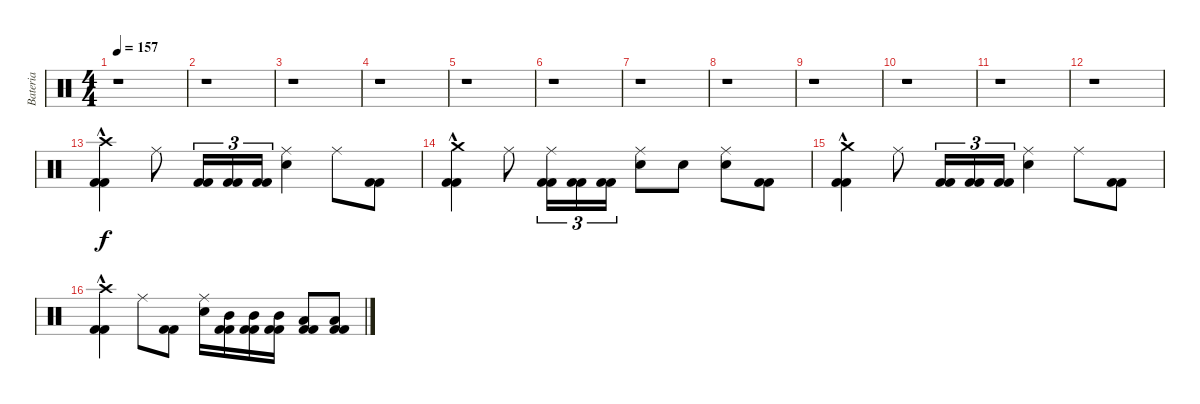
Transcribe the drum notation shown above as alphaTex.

\track ("Bateria" "Bateria") {instrument percussion}
\staff {score}
\articulation defaults
\ts (4 4)
\tempo 157
\clef neutral
\ks c
r.1{dy f} |
r.1 |
r.1 |
r.1 |
r.1 |
r.1 |
r.1 |
r.1 |
r.1 |
r.1 |
r.1 |
r.1 |
("Kick (hit) 2"{hac} "Kick (hit) 2" "Crash high (hit)").4 "Ride (middle)".8 ("Kick (hit) 2" "Kick (hit) 2").16{tu (3 2)} ("Kick (hit) 2" "Kick (hit) 2").16{tu (3 2)} ("Kick (hit) 2" "Kick (hit) 2").16{tu (3 2)} ("Snare (hit) 2" "Ride (middle)").4 "Ride (middle)".8 ("Kick (hit) 2" "Kick (hit) 2").8 |
("Kick (hit) 2"{hac} "Kick (hit) 2" "Crash medium (hit)").4 "Ride (middle)".8 ("Kick (hit) 2" "Kick (hit) 2" "Ride (middle)").16{tu (3 2)} ("Kick (hit) 2" "Kick (hit) 2").16{tu (3 2)} ("Kick (hit) 2" "Kick (hit) 2").16{tu (3 2)} ("Snare (hit) 2" "Ride (middle)").8 "Snare (hit) 2".8 ("Snare (hit) 2" "Ride (middle)").8 ("Kick (hit) 2" "Kick (hit) 2").8 |
("Kick (hit) 2"{hac} "Kick (hit) 2" "Crash medium (hit)").4 "Ride (middle)".8 ("Kick (hit) 2" "Kick (hit) 2").16{tu (3 2)} ("Kick (hit) 2" "Kick (hit) 2").16{tu (3 2)} ("Kick (hit) 2" "Kick (hit) 2").16{tu (3 2)} ("Snare (hit) 2" "Ride (middle)").4 "Ride (middle)".8 ("Kick (hit) 2" "Kick (hit) 2").8 |
("Kick (hit) 2"{hac} "Kick (hit) 2" "Crash high (hit)").4 "Ride (middle)".8 ("Kick (hit) 2" "Kick (hit) 2").8 ("Snare (hit) 2" "Ride (middle)").16 ("Kick (hit) 2" "Kick (hit) 2" "Mid Tom (hit)").16 ("Kick (hit) 2" "Kick (hit) 2" "Mid Tom (hit)").16 ("Kick (hit) 2" "Kick (hit) 2" "Mid Tom (hit)").16 ("Kick (hit) 2" "Kick (hit) 2" "Low Tom (hit)").8 ("Kick (hit) 2" "Kick (hit) 2" "Low Tom (hit)").8
